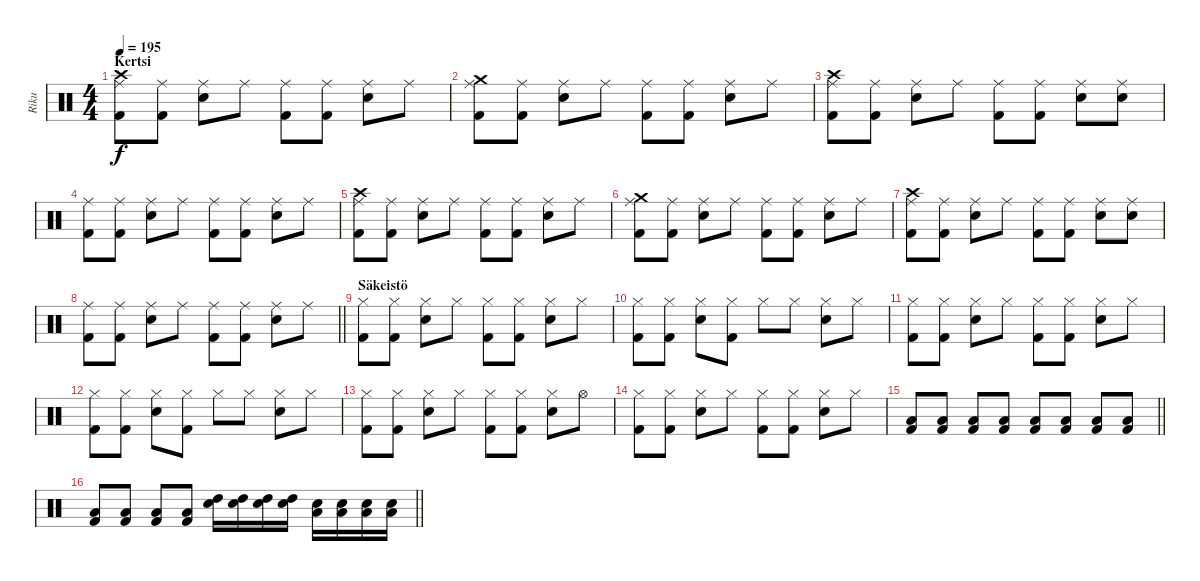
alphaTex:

\track ("Riku" "Riku") {instrument percussion}
\staff {score}
\articulation defaults
\ts (4 4)
\section ("" "Kertsi")
\tempo 195
\clef neutral
\ks c
("Kick (hit) 2" "Crash high (hit)" "Ride (middle)").8{dy f} ("Kick (hit) 2" "Ride (middle)").8 ("Snare (hit) 2" "Ride (middle)").8 "Ride (middle)".8 ("Kick (hit) 2" "Ride (middle)").8 ("Kick (hit) 2" "Ride (middle)").8 ("Snare (hit) 2" "Ride (middle)").8 "Ride (middle)".8 |
("Kick (hit) 2" "Crash medium (hit)" "Ride (middle)").8 ("Kick (hit) 2" "Ride (middle)").8 ("Snare (hit) 2" "Ride (middle)").8 "Ride (middle)".8 ("Kick (hit) 2" "Ride (middle)").8 ("Kick (hit) 2" "Ride (middle)").8 ("Snare (hit) 2" "Ride (middle)").8 "Ride (middle)".8 |
("Kick (hit) 2" "Crash high (hit)" "Ride (middle)").8 ("Kick (hit) 2" "Ride (middle)").8 ("Snare (hit) 2" "Ride (middle)").8 "Ride (middle)".8 ("Kick (hit) 2" "Ride (middle)").8 ("Kick (hit) 2" "Ride (middle)").8 ("Snare (hit) 2" "Ride (middle)").8 ("Snare (hit) 2" "Ride (middle)").8 |
("Kick (hit) 2" "Ride (middle)").8 ("Kick (hit) 2" "Ride (middle)").8 ("Snare (hit) 2" "Ride (middle)").8 "Ride (middle)".8 ("Kick (hit) 2" "Ride (middle)").8 ("Kick (hit) 2" "Ride (middle)").8 ("Snare (hit) 2" "Ride (middle)").8 "Ride (middle)".8 |
("Kick (hit) 2" "Crash high (hit)" "Ride (middle)").8 ("Kick (hit) 2" "Ride (middle)").8 ("Snare (hit) 2" "Ride (middle)").8 "Ride (middle)".8 ("Kick (hit) 2" "Ride (middle)").8 ("Kick (hit) 2" "Ride (middle)").8 ("Snare (hit) 2" "Ride (middle)").8 "Ride (middle)".8 |
("Kick (hit) 2" "Crash medium (hit)" "Ride (middle)").8 ("Kick (hit) 2" "Ride (middle)").8 ("Snare (hit) 2" "Ride (middle)").8 "Ride (middle)".8 ("Kick (hit) 2" "Ride (middle)").8 ("Kick (hit) 2" "Ride (middle)").8 ("Snare (hit) 2" "Ride (middle)").8 "Ride (middle)".8 |
("Kick (hit) 2" "Crash high (hit)" "Ride (middle)").8 ("Kick (hit) 2" "Ride (middle)").8 ("Snare (hit) 2" "Ride (middle)").8 "Ride (middle)".8 ("Kick (hit) 2" "Ride (middle)").8 ("Kick (hit) 2" "Ride (middle)").8 ("Snare (hit) 2" "Ride (middle)").8 ("Snare (hit) 2" "Ride (middle)").8 |
\barLineRight lightlight
("Kick (hit) 2" "Ride (middle)").8 ("Kick (hit) 2" "Ride (middle)").8 ("Snare (hit) 2" "Ride (middle)").8 "Ride (middle)".8 ("Kick (hit) 2" "Ride (middle)").8 ("Kick (hit) 2" "Ride (middle)").8 ("Snare (hit) 2" "Ride (middle)").8 "Ride (middle)".8 |
\section ("" "Säkeistö")
("Kick (hit) 2" "Hi-Hat (closed)").8 ("Kick (hit) 2" "Hi-Hat (closed)").8 ("Snare (hit) 2" "Hi-Hat (closed)").8 "Hi-Hat (closed)".8 ("Kick (hit) 2" "Hi-Hat (closed)").8 ("Kick (hit) 2" "Hi-Hat (closed)").8 ("Snare (hit) 2" "Hi-Hat (closed)").8 "Hi-Hat (closed)".8 |
("Kick (hit) 2" "Hi-Hat (closed)").8 ("Kick (hit) 2" "Hi-Hat (closed)").8 ("Snare (hit) 2" "Hi-Hat (closed)").8 ("Kick (hit) 2" "Hi-Hat (closed)").8 "Hi-Hat (closed)".8 "Hi-Hat (closed)".8 ("Snare (hit) 2" "Hi-Hat (closed)").8 "Hi-Hat (closed)".8 |
("Kick (hit) 2" "Hi-Hat (closed)").8 ("Kick (hit) 2" "Hi-Hat (closed)").8 ("Snare (hit) 2" "Hi-Hat (closed)").8 "Hi-Hat (closed)".8 ("Kick (hit) 2" "Hi-Hat (closed)").8 ("Kick (hit) 2" "Hi-Hat (closed)").8 ("Snare (hit) 2" "Hi-Hat (closed)").8 "Hi-Hat (closed)".8 |
("Kick (hit) 2" "Hi-Hat (closed)").8 ("Kick (hit) 2" "Hi-Hat (closed)").8 ("Snare (hit) 2" "Hi-Hat (closed)").8 ("Kick (hit) 2" "Hi-Hat (closed)").8 "Hi-Hat (closed)".8 "Hi-Hat (closed)".8 ("Snare (hit) 2" "Hi-Hat (closed)").8 "Hi-Hat (closed)".8 |
("Kick (hit) 2" "Hi-Hat (closed)").8 ("Kick (hit) 2" "Hi-Hat (closed)").8 ("Snare (hit) 2" "Hi-Hat (closed)").8 "Hi-Hat (closed)".8 ("Kick (hit) 2" "Hi-Hat (closed)").8 ("Kick (hit) 2" "Hi-Hat (closed)").8 ("Snare (hit) 2" "Hi-Hat (closed)").8 "Hi-Hat (open)".8 |
("Kick (hit) 2" "Hi-Hat (closed)").8 ("Kick (hit) 2" "Hi-Hat (closed)").8 ("Snare (hit) 2" "Hi-Hat (closed)").8 "Hi-Hat (closed)".8 ("Kick (hit) 2" "Hi-Hat (closed)").8 ("Kick (hit) 2" "Hi-Hat (closed)").8 ("Snare (hit) 2" "Hi-Hat (closed)").8 "Hi-Hat (closed)".8 |
\barLineRight lightlight
("Low Tom (hit)" "Kick (hit) 2").8 ("Low Tom (hit)" "Kick (hit) 2").8 ("Low Tom (hit)" "Kick (hit) 2").8 ("Low Tom (hit)" "Kick (hit) 2").8 ("Low Tom (hit)" "Kick (hit) 2").8 ("Low Tom (hit)" "Kick (hit) 2").8 ("Low Tom (hit)" "Kick (hit) 2").8 ("Low Tom (hit)" "Kick (hit) 2").8 |
\barLineRight lightlight
("Low Tom (hit)" "Kick (hit) 2").8 ("Low Tom (hit)" "Kick (hit) 2").8 ("Low Tom (hit)" "Kick (hit) 2").8 ("Low Tom (hit)" "Kick (hit) 2").8 ("Snare (hit) 2" "High Tom (hit)").16 ("Snare (hit) 2" "High Tom (hit)").16 ("Snare (hit) 2" "High Tom (hit)").16 ("Snare (hit) 2" "High Tom (hit)").16 ("Snare (hit) 2" "Low Tom (hit)").16 ("Snare (hit) 2" "Low Tom (hit)").16 ("Snare (hit) 2" "Low Floor Tom (hit)").16 ("Snare (hit) 2" "Low Floor Tom (hit)").16
